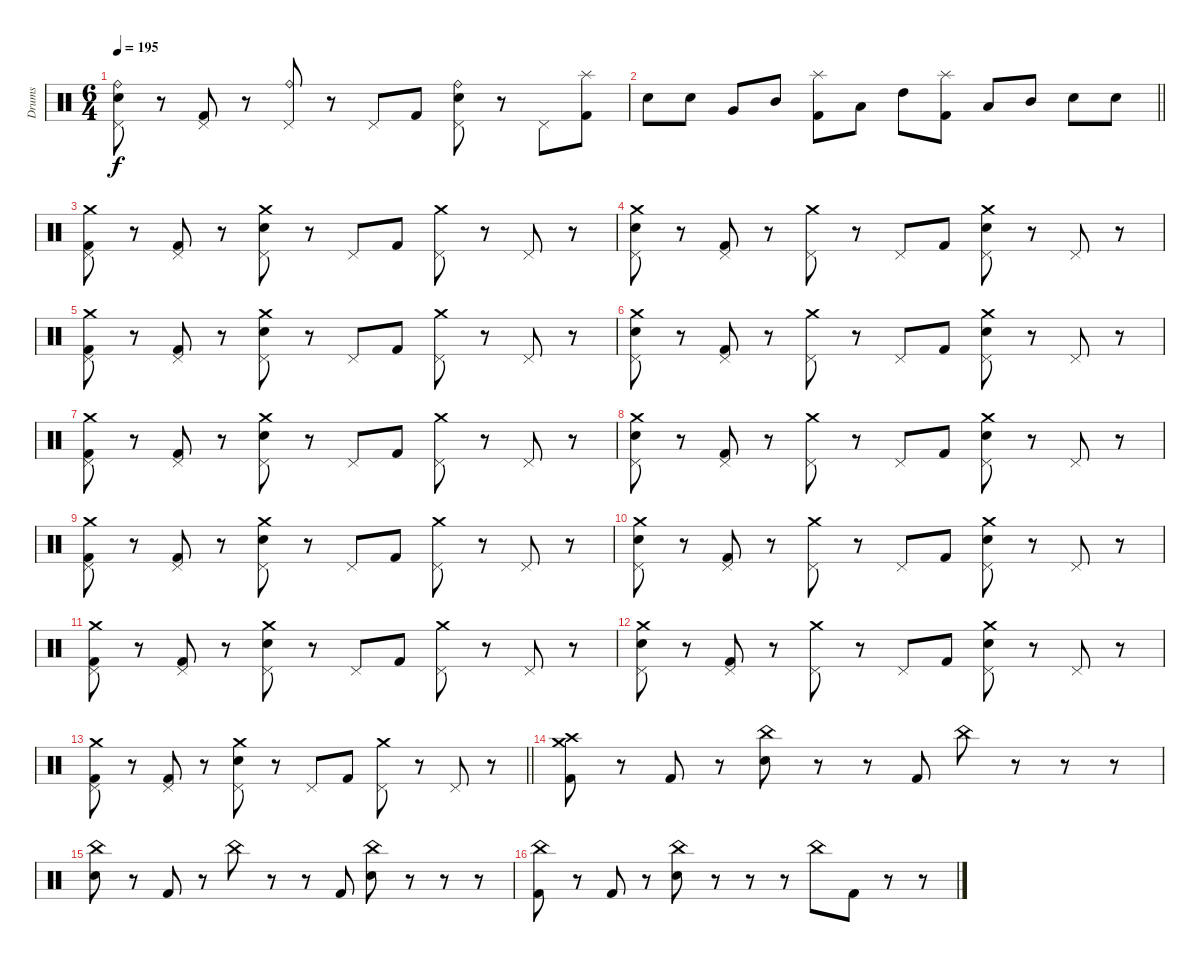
\track ("Drums" "Drums") {instrument percussion}
\staff {score}
\articulation defaults
\ts (6 4)
\tempo 195
\clef neutral
\ks c
("Ride (bell)" "Pedal Hi-Hat (hit)" "Electric Snare (hit)").8{dy f} r.8 ("Pedal Hi-Hat (hit)" "Kick (hit) 2").8 r.8 ("Ride (bell)" "Pedal Hi-Hat (hit)").8 r.8 "Pedal Hi-Hat (hit)".8 "Kick (hit) 2".8 ("Ride (bell)" "Pedal Hi-Hat (hit)" "Electric Snare (hit)").8 r.8 "Pedal Hi-Hat (hit)".8 ("Splash (hit)" "Kick (hit) 2").8 |
\barLineRight lightlight "Electric Snare (hit)".8 "Electric Snare (hit)".8 "Very Low Tom (hit)".8 "Mid Tom (hit)".8
("Splash (hit)" "Kick (hit) 2").8 "Low Tom (hit)".8 "High Tom (hit)".8 ("Splash (hit)" "Kick (hit) 2").8 "Low Tom (hit)".8 "Mid Tom (hit)".8 "Electric Snare (hit)".8 "Electric Snare (hit)".8 |
\section ("" "")
("Crash medium (hit)" "Pedal Hi-Hat (hit)" "Kick (hit) 2").8 r.8 ("Pedal Hi-Hat (hit)" "Kick (hit) 2").8 r.8 ("Crash medium (hit)" "Pedal Hi-Hat (hit)" "Electric Snare (hit)").8 r.8 "Pedal Hi-Hat (hit)".8 "Kick (hit) 2".8 ("Crash medium (hit)" "Pedal Hi-Hat (hit)").8 r.8 "Pedal Hi-Hat (hit)".8 r.8 |
("Crash medium (hit)" "Pedal Hi-Hat (hit)" "Electric Snare (hit)").8 r.8 ("Pedal Hi-Hat (hit)" "Kick (hit) 2").8 r.8 ("Crash medium (hit)" "Pedal Hi-Hat (hit)").8 r.8 "Pedal Hi-Hat (hit)".8 "Kick (hit) 2".8 ("Crash medium (hit)" "Pedal Hi-Hat (hit)" "Electric Snare (hit)").8 r.8 "Pedal Hi-Hat (hit)".8 r.8 |
("Crash medium (hit)" "Pedal Hi-Hat (hit)" "Kick (hit) 2").8 r.8 ("Pedal Hi-Hat (hit)" "Kick (hit) 2").8 r.8 ("Crash medium (hit)" "Pedal Hi-Hat (hit)" "Electric Snare (hit)").8 r.8 "Pedal Hi-Hat (hit)".8 "Kick (hit) 2".8 ("Crash medium (hit)" "Pedal Hi-Hat (hit)").8 r.8 "Pedal Hi-Hat (hit)".8 r.8 |
("Crash medium (hit)" "Pedal Hi-Hat (hit)" "Electric Snare (hit)").8 r.8 ("Pedal Hi-Hat (hit)" "Kick (hit) 2").8 r.8 ("Crash medium (hit)" "Pedal Hi-Hat (hit)").8 r.8 "Pedal Hi-Hat (hit)".8 "Kick (hit) 2".8 ("Crash medium (hit)" "Pedal Hi-Hat (hit)" "Electric Snare (hit)").8 r.8 "Pedal Hi-Hat (hit)".8 r.8 |
("Crash medium (hit)" "Pedal Hi-Hat (hit)" "Kick (hit) 2").8 r.8 ("Pedal Hi-Hat (hit)" "Kick (hit) 2").8 r.8 ("Crash medium (hit)" "Pedal Hi-Hat (hit)" "Electric Snare (hit)").8 r.8 "Pedal Hi-Hat (hit)".8 "Kick (hit) 2".8 ("Crash medium (hit)" "Pedal Hi-Hat (hit)").8 r.8 "Pedal Hi-Hat (hit)".8 r.8 |
("Crash medium (hit)" "Pedal Hi-Hat (hit)" "Electric Snare (hit)").8 r.8 ("Pedal Hi-Hat (hit)" "Kick (hit) 2").8 r.8 ("Crash medium (hit)" "Pedal Hi-Hat (hit)").8 r.8 "Pedal Hi-Hat (hit)".8 "Kick (hit) 2".8 ("Crash medium (hit)" "Pedal Hi-Hat (hit)" "Electric Snare (hit)").8 r.8 "Pedal Hi-Hat (hit)".8 r.8 |
("Crash medium (hit)" "Pedal Hi-Hat (hit)" "Kick (hit) 2").8 r.8 ("Pedal Hi-Hat (hit)" "Kick (hit) 2").8 r.8 ("Crash medium (hit)" "Pedal Hi-Hat (hit)" "Electric Snare (hit)").8 r.8 "Pedal Hi-Hat (hit)".8 "Kick (hit) 2".8 ("Crash medium (hit)" "Pedal Hi-Hat (hit)").8 r.8 "Pedal Hi-Hat (hit)".8 r.8 |
("Crash medium (hit)" "Pedal Hi-Hat (hit)" "Electric Snare (hit)").8 r.8 ("Pedal Hi-Hat (hit)" "Kick (hit) 2").8 r.8 ("Crash medium (hit)" "Pedal Hi-Hat (hit)").8 r.8 "Pedal Hi-Hat (hit)".8 "Kick (hit) 2".8 ("Crash medium (hit)" "Pedal Hi-Hat (hit)" "Electric Snare (hit)").8 r.8 "Pedal Hi-Hat (hit)".8 r.8 |
("Crash medium (hit)" "Pedal Hi-Hat (hit)" "Kick (hit) 2").8 r.8 ("Pedal Hi-Hat (hit)" "Kick (hit) 2").8 r.8 ("Crash medium (hit)" "Pedal Hi-Hat (hit)" "Electric Snare (hit)").8 r.8 "Pedal Hi-Hat (hit)".8 "Kick (hit) 2".8 ("Crash medium (hit)" "Pedal Hi-Hat (hit)").8 r.8 "Pedal Hi-Hat (hit)".8 r.8 |
("Crash medium (hit)" "Pedal Hi-Hat (hit)" "Electric Snare (hit)").8 r.8 ("Pedal Hi-Hat (hit)" "Kick (hit) 2").8 r.8 ("Crash medium (hit)" "Pedal Hi-Hat (hit)").8 r.8 "Pedal Hi-Hat (hit)".8 "Kick (hit) 2".8 ("Crash medium (hit)" "Pedal Hi-Hat (hit)" "Electric Snare (hit)").8 r.8 "Pedal Hi-Hat (hit)".8 r.8 |
\barLineRight lightlight
("Crash medium (hit)" "Pedal Hi-Hat (hit)" "Kick (hit) 2").8 r.8 ("Pedal Hi-Hat (hit)" "Kick (hit) 2").8 r.8 ("Crash medium (hit)" "Pedal Hi-Hat (hit)" "Electric Snare (hit)").8 r.8 "Pedal Hi-Hat (hit)".8 "Kick (hit) 2".8 ("Crash medium (hit)" "Pedal Hi-Hat (hit)").8 r.8 "Pedal Hi-Hat (hit)".8 r.8 |
\section ("" "")
("Crash medium (hit)" "Crash high (hit)" "Kick (hit) 2").8 r.8 "Kick (hit) 2".8 r.8 ("China (hit)" "Electric Snare (hit)").8 r.8 r.8 "Kick (hit) 2".8 "China (hit)".8 r.8 r.8 r.8 |
("China (hit)" "Electric Snare (hit)").8 r.8 "Kick (hit) 2".8 r.8 "China (hit)".8 r.8 r.8 "Kick (hit) 2".8 ("China (hit)" "Electric Snare (hit)").8 r.8 r.8 r.8 |
("China (hit)" "Kick (hit) 2").8 r.8 "Kick (hit) 2".8 r.8 ("China (hit)" "Electric Snare (hit)").8 r.8 r.8 r.8 "China (hit)".8 "Kick (hit) 2".8 r.8 r.8
